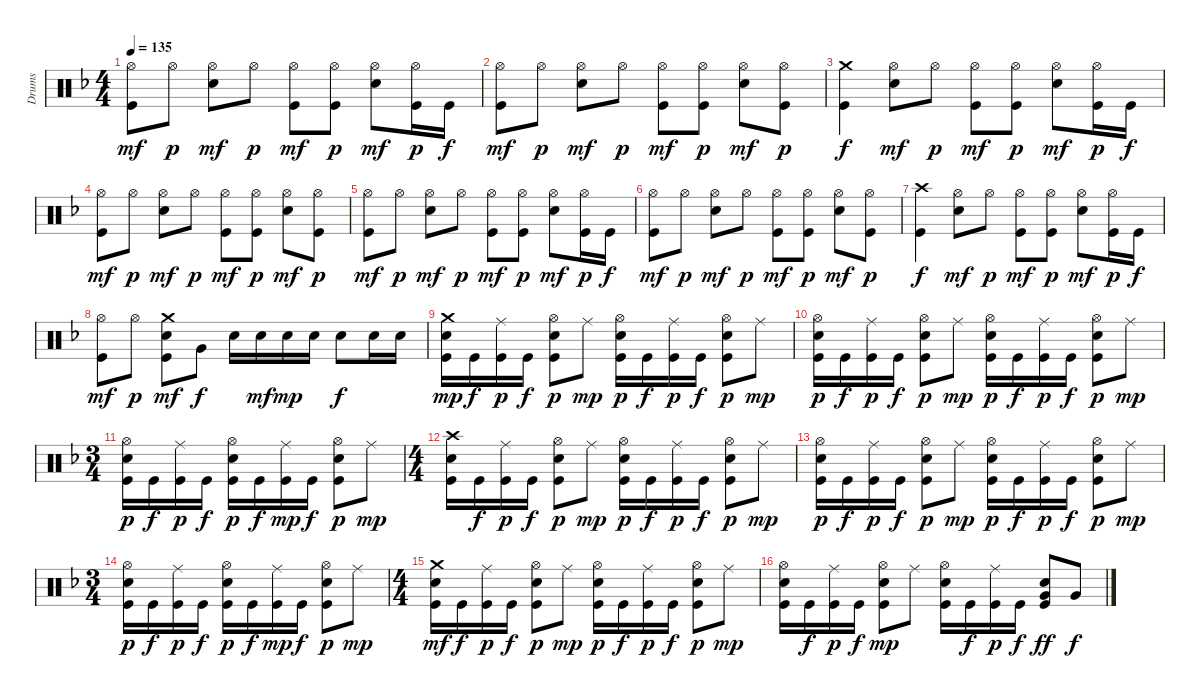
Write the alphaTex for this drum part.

\track ("Drums" "Drums") {instrument percussion}
\staff {score}
\articulation defaults
\ts (4 4)
\tempo 135
\clef neutral
\ks dminor
("Hi-Hat (open)" "Kick (hit)").8{dy mf} "Hi-Hat (open)".8{dy p} ("Hi-Hat (open)" "Snare (hit) 2").8{dy mf} "Hi-Hat (open)".8{dy p} ("Hi-Hat (open)" "Kick (hit)").8{dy mf} ("Hi-Hat (open)" "Kick (hit)").8{dy p} ("Hi-Hat (open)" "Snare (hit) 2").8{dy mf} ("Hi-Hat (open)" "Kick (hit)").16{dy p} "Kick (hit)".16{dy f} |
("Hi-Hat (open)" "Kick (hit)").8{dy mf} "Hi-Hat (open)".8{dy p} ("Hi-Hat (open)" "Snare (hit) 2").8{dy mf} "Hi-Hat (open)".8{dy p} ("Hi-Hat (open)" "Kick (hit)").8{dy mf} ("Hi-Hat (open)" "Kick (hit)").8{dy p} ("Hi-Hat (open)" "Snare (hit) 2").8{dy mf} ("Hi-Hat (open)" "Kick (hit)").8{dy p} |
("Crash medium (hit)" "Kick (hit)").4{dy f} ("Hi-Hat (open)" "Snare (hit) 2").8{dy mf} "Hi-Hat (open)".8{dy p} ("Hi-Hat (open)" "Kick (hit)").8{dy mf} ("Hi-Hat (open)" "Kick (hit)").8{dy p} ("Hi-Hat (open)" "Snare (hit) 2").8{dy mf} ("Hi-Hat (open)" "Kick (hit)").16{dy p} "Kick (hit)".16{dy f} |
("Hi-Hat (open)" "Kick (hit)").8{dy mf} "Hi-Hat (open)".8{dy p} ("Hi-Hat (open)" "Snare (hit) 2").8{dy mf} "Hi-Hat (open)".8{dy p} ("Hi-Hat (open)" "Kick (hit)").8{dy mf} ("Hi-Hat (open)" "Kick (hit)").8{dy p} ("Hi-Hat (open)" "Snare (hit) 2").8{dy mf} ("Hi-Hat (open)" "Kick (hit)").8{dy p} |
("Hi-Hat (open)" "Kick (hit)").8{dy mf} "Hi-Hat (open)".8{dy p} ("Hi-Hat (open)" "Snare (hit) 2").8{dy mf} "Hi-Hat (open)".8{dy p} ("Hi-Hat (open)" "Kick (hit)").8{dy mf} ("Hi-Hat (open)" "Kick (hit)").8{dy p} ("Hi-Hat (open)" "Snare (hit) 2").8{dy mf} ("Hi-Hat (open)" "Kick (hit)").16{dy p} "Kick (hit)".16{dy f} |
("Hi-Hat (open)" "Kick (hit)").8{dy mf} "Hi-Hat (open)".8{dy p} ("Hi-Hat (open)" "Snare (hit) 2").8{dy mf} "Hi-Hat (open)".8{dy p} ("Hi-Hat (open)" "Kick (hit)").8{dy mf} ("Hi-Hat (open)" "Kick (hit)").8{dy p} ("Hi-Hat (open)" "Snare (hit) 2").8{dy mf} ("Hi-Hat (open)" "Kick (hit)").8{dy p} |
("Crash high (hit)" "Kick (hit)").4{dy f} ("Hi-Hat (open)" "Snare (hit) 2").8{dy mf} "Hi-Hat (open)".8{dy p} ("Hi-Hat (open)" "Kick (hit)").8{dy mf} ("Hi-Hat (open)" "Kick (hit)").8{dy p} ("Hi-Hat (open)" "Snare (hit) 2").8{dy mf} ("Hi-Hat (open)" "Kick (hit)").16{dy p} "Kick (hit)".16{dy f} |
("Hi-Hat (open)" "Kick (hit)").8{dy mf} "Hi-Hat (open)".8{dy p} ("Crash medium (hit)" "Snare (hit) 2" "Kick (hit)").8{dy mf} "Very Low Tom (hit)".8{dy f} "Snare (hit) 2".16 "Snare (hit) 2".16{dy mf} "Snare (hit) 2".16{dy mp} "Snare (hit) 2".16 "Snare (hit) 2".8{dy f} "Snare (hit) 2".16 "Snare (hit) 2".16 |
("Crash medium (hit)" "Snare (hit) 2" "Kick (hit)").16{dy mp} "Kick (hit)".16{dy f} ("Ride (middle)" "Kick (hit)").16{dy p} "Kick (hit)".16{dy f} ("Hi-Hat (open)" "Snare (hit) 2" "Kick (hit)").8{dy p} "Ride (middle)".8{dy mp} ("Hi-Hat (open)" "Snare (hit) 2" "Kick (hit)").16{dy p} "Kick (hit)".16{dy f} ("Ride (middle)" "Kick (hit)").16{dy p} "Kick (hit)".16{dy f} ("Hi-Hat (open)" "Snare (hit) 2" "Kick (hit)").8{dy p} "Ride (middle)".8{dy mp} |
("Hi-Hat (open)" "Snare (hit) 2" "Kick (hit)").16{dy p} "Kick (hit)".16{dy f} ("Ride (middle)" "Kick (hit)").16{dy p} "Kick (hit)".16{dy f} ("Hi-Hat (open)" "Snare (hit) 2" "Kick (hit)").8{dy p} "Ride (middle)".8{dy mp} ("Hi-Hat (open)" "Snare (hit) 2" "Kick (hit)").16{dy p} "Kick (hit)".16{dy f} ("Ride (middle)" "Kick (hit)").16{dy p} "Kick (hit)".16{dy f} ("Hi-Hat (open)" "Snare (hit) 2" "Kick (hit)").8{dy p} "Ride (middle)".8{dy mp} |
\ts (3 4)
("Hi-Hat (open)" "Snare (hit) 2" "Kick (hit)").16{dy p} "Kick (hit)".16{dy f} ("Ride (middle)" "Kick (hit)").16{dy p} "Kick (hit)".16{dy f} ("Hi-Hat (open)" "Snare (hit) 2" "Kick (hit)").16{dy p} "Kick (hit)".16{dy f} ("Ride (middle)" "Kick (hit)").16{dy mp} "Kick (hit)".16{dy f} ("Hi-Hat (open)" "Snare (hit) 2" "Kick (hit)").8{dy p} "Ride (middle)".8{dy mp} |
\ts (4 4)
("Crash high (hit)" "Snare (hit) 2" "Kick (hit)").16 "Kick (hit)".16{dy f} ("Ride (middle)" "Kick (hit)").16{dy p} "Kick (hit)".16{dy f} ("Hi-Hat (open)" "Snare (hit) 2" "Kick (hit)").8{dy p} "Ride (middle)".8{dy mp} ("Hi-Hat (open)" "Snare (hit) 2" "Kick (hit)").16{dy p} "Kick (hit)".16{dy f} ("Ride (middle)" "Kick (hit)").16{dy p} "Kick (hit)".16{dy f} ("Hi-Hat (open)" "Snare (hit) 2" "Kick (hit)").8{dy p} "Ride (middle)".8{dy mp} |
("Hi-Hat (open)" "Snare (hit) 2" "Kick (hit)").16{dy p} "Kick (hit)".16{dy f} ("Ride (middle)" "Kick (hit)").16{dy p} "Kick (hit)".16{dy f} ("Hi-Hat (open)" "Snare (hit) 2" "Kick (hit)").8{dy p} "Ride (middle)".8{dy mp} ("Hi-Hat (open)" "Snare (hit) 2" "Kick (hit)").16{dy p} "Kick (hit)".16{dy f} ("Ride (middle)" "Kick (hit)").16{dy p} "Kick (hit)".16{dy f} ("Hi-Hat (open)" "Snare (hit) 2" "Kick (hit)").8{dy p} "Ride (middle)".8{dy mp} |
\ts (3 4)
("Hi-Hat (open)" "Snare (hit) 2" "Kick (hit)").16{dy p} "Kick (hit)".16{dy f} ("Ride (middle)" "Kick (hit)").16{dy p} "Kick (hit)".16{dy f} ("Hi-Hat (open)" "Snare (hit) 2" "Kick (hit)").16{dy p} "Kick (hit)".16{dy f} ("Ride (middle)" "Kick (hit)").16{dy mp} "Kick (hit)".16{dy f} ("Hi-Hat (open)" "Snare (hit) 2" "Kick (hit)").8{dy p} "Ride (middle)".8{dy mp} |
\ts (4 4)
("Crash medium (hit)" "Snare (hit) 2" "Kick (hit)").16{dy mf} "Kick (hit)".16{dy f} ("Ride (middle)" "Kick (hit)").16{dy p} "Kick (hit)".16{dy f} ("Hi-Hat (open)" "Snare (hit) 2" "Kick (hit)").8{dy p} "Ride (middle)".8{dy mp} ("Hi-Hat (open)" "Snare (hit) 2" "Kick (hit)").16{dy p} "Kick (hit)".16{dy f} ("Ride (middle)" "Kick (hit)").16{dy p} "Kick (hit)".16{dy f} ("Hi-Hat (open)" "Snare (hit) 2" "Kick (hit)").8{dy p} "Ride (middle)".8{dy mp} |
("Hi-Hat (open)" "Snare (hit) 2" "Kick (hit)").16 "Kick (hit)".16{dy f} ("Ride (middle)" "Kick (hit)").16{dy p} "Kick (hit)".16{dy f} ("Hi-Hat (open)" "Snare (hit) 2" "Kick (hit)").8{dy mp} "Ride (middle)".8 ("Hi-Hat (open)" "Snare (hit) 2" "Kick (hit)").16 "Kick (hit)".16{dy f} ("Ride (middle)" "Kick (hit)").16{dy p} "Kick (hit)".16{dy f} ("Very Low Tom (hit)" "Snare (hit) 2" "Kick (hit)").8{dy ff} "Very Low Tom (hit)".8{dy f}
